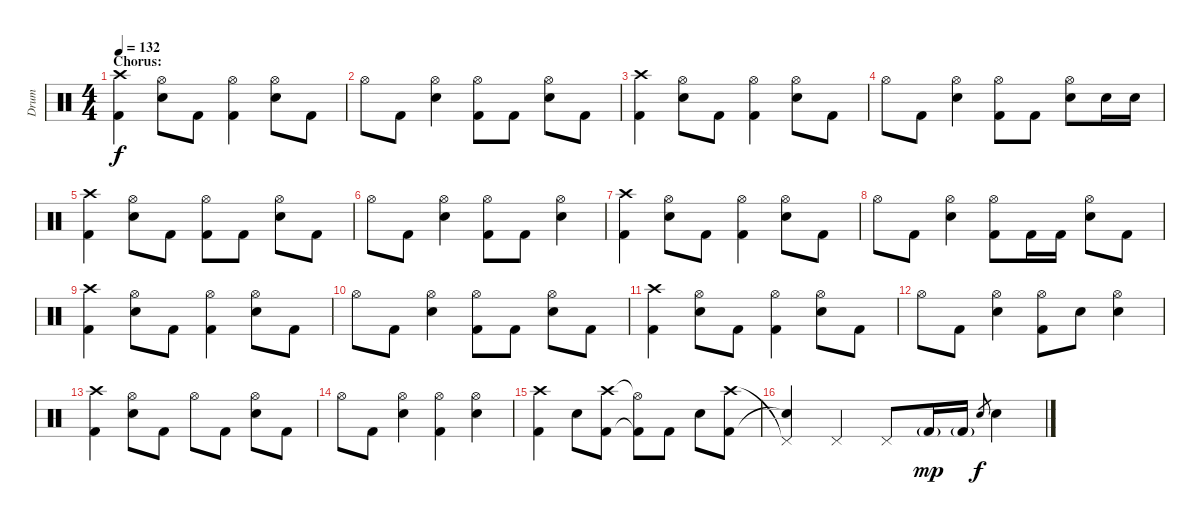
\track ("Drum" "Drum") {instrument percussion}
\staff {score}
\articulation defaults
\ts (4 4)
\section ("" "Chorus:")
\tempo 132
\clef neutral
\ks c
("Crash high (hit)" "Kick (hit) 2").4{dy f} ("Hi-Hat (open)" "Snare (hit) 2").8 "Kick (hit) 2".8 ("Hi-Hat (open)" "Kick (hit) 2").4 ("Hi-Hat (open)" "Snare (hit) 2").8 "Kick (hit) 2".8 |
"Hi-Hat (open)".8 "Kick (hit) 2".8 ("Hi-Hat (open)" "Snare (hit) 2").4 ("Hi-Hat (open)" "Kick (hit) 2").8 "Kick (hit) 2".8 ("Hi-Hat (open)" "Snare (hit) 2").8 "Kick (hit) 2".8 |
("Crash high (hit)" "Kick (hit) 2").4 ("Hi-Hat (open)" "Snare (hit) 2").8 "Kick (hit) 2".8 ("Hi-Hat (open)" "Kick (hit) 2").4 ("Hi-Hat (open)" "Snare (hit) 2").8 "Kick (hit) 2".8 |
"Hi-Hat (open)".8 "Kick (hit) 2".8 ("Hi-Hat (open)" "Snare (hit) 2").4 ("Hi-Hat (open)" "Kick (hit) 2").8 "Kick (hit) 2".8 ("Hi-Hat (open)" "Snare (hit) 2").8 "Snare (hit) 2".16 "Snare (hit) 2".16 |
("Crash high (hit)" "Kick (hit) 2").4 ("Hi-Hat (open)" "Snare (hit) 2").8 "Kick (hit) 2".8 ("Hi-Hat (open)" "Kick (hit) 2").8 "Kick (hit) 2".8 ("Hi-Hat (open)" "Snare (hit) 2").8 "Kick (hit) 2".8 |
"Hi-Hat (open)".8 "Kick (hit) 2".8 ("Hi-Hat (open)" "Snare (hit) 2").4 ("Hi-Hat (open)" "Kick (hit) 2").8 "Kick (hit) 2".8 ("Hi-Hat (open)" "Snare (hit) 2").4 |
("Crash high (hit)" "Kick (hit) 2").4 ("Hi-Hat (open)" "Snare (hit) 2").8 "Kick (hit) 2".8 ("Hi-Hat (open)" "Kick (hit) 2").4 ("Hi-Hat (open)" "Snare (hit) 2").8 "Kick (hit) 2".8 |
"Hi-Hat (open)".8 "Kick (hit) 2".8 ("Hi-Hat (open)" "Snare (hit) 2").4 ("Hi-Hat (open)" "Kick (hit) 2").8 "Kick (hit) 2".16 "Kick (hit) 2".16 ("Hi-Hat (open)" "Snare (hit) 2").8 "Kick (hit) 2".8 |
("Crash high (hit)" "Kick (hit) 2").4 ("Hi-Hat (open)" "Snare (hit) 2").8 "Kick (hit) 2".8 ("Hi-Hat (open)" "Kick (hit) 2").4 ("Hi-Hat (open)" "Snare (hit) 2").8 "Kick (hit) 2".8 |
"Hi-Hat (open)".8 "Kick (hit) 2".8 ("Hi-Hat (open)" "Snare (hit) 2").4 ("Hi-Hat (open)" "Kick (hit) 2").8 "Kick (hit) 2".8 ("Hi-Hat (open)" "Snare (hit) 2").8 "Kick (hit) 2".8 |
("Crash high (hit)" "Kick (hit) 2").4 ("Hi-Hat (open)" "Snare (hit) 2").8 "Kick (hit) 2".8 ("Hi-Hat (open)" "Kick (hit) 2").4 ("Hi-Hat (open)" "Snare (hit) 2").8 "Kick (hit) 2".8 |
"Hi-Hat (open)".8 "Kick (hit) 2".8 ("Hi-Hat (open)" "Snare (hit) 2").4 ("Hi-Hat (open)" "Kick (hit) 2").8 "Snare (hit) 2".8 ("Hi-Hat (open)" "Snare (hit) 2").4 |
("Crash high (hit)" "Kick (hit) 2").4 ("Hi-Hat (open)" "Snare (hit) 2").8 "Kick (hit) 2".8 "Hi-Hat (open)".8 "Kick (hit) 2".8 ("Hi-Hat (open)" "Snare (hit) 2").8 "Kick (hit) 2".8 |
"Hi-Hat (open)".8 "Kick (hit) 2".8 ("Hi-Hat (open)" "Snare (hit) 2").4 ("Hi-Hat (open)" "Kick (hit) 2").4 ("Hi-Hat (open)" "Snare (hit) 2").4 |
("Crash high (hit)" "Kick (hit) 2").4 "Snare (hit) 2".8 ("Crash high (hit)" "Kick (hit) 2").8 ("Hi-Hat (open)"{t} "Kick (hit) 2"{t}).8 "Kick (hit) 2".8 "Snare (hit) 2".8 ("Crash high (hit)" "Kick (hit) 2").8 |
("Pedal Hi-Hat (hit)"{t} "Snare (hit)"{t}).4 "Pedal Hi-Hat (hit)".4 "Pedal Hi-Hat (hit)".8 "Kick (hit) 2"{g}.16{dy mp} "Kick (hit) 2"{g}.16 "Snare (hit) 2".8{gr dy f} "Snare (hit) 2".4
